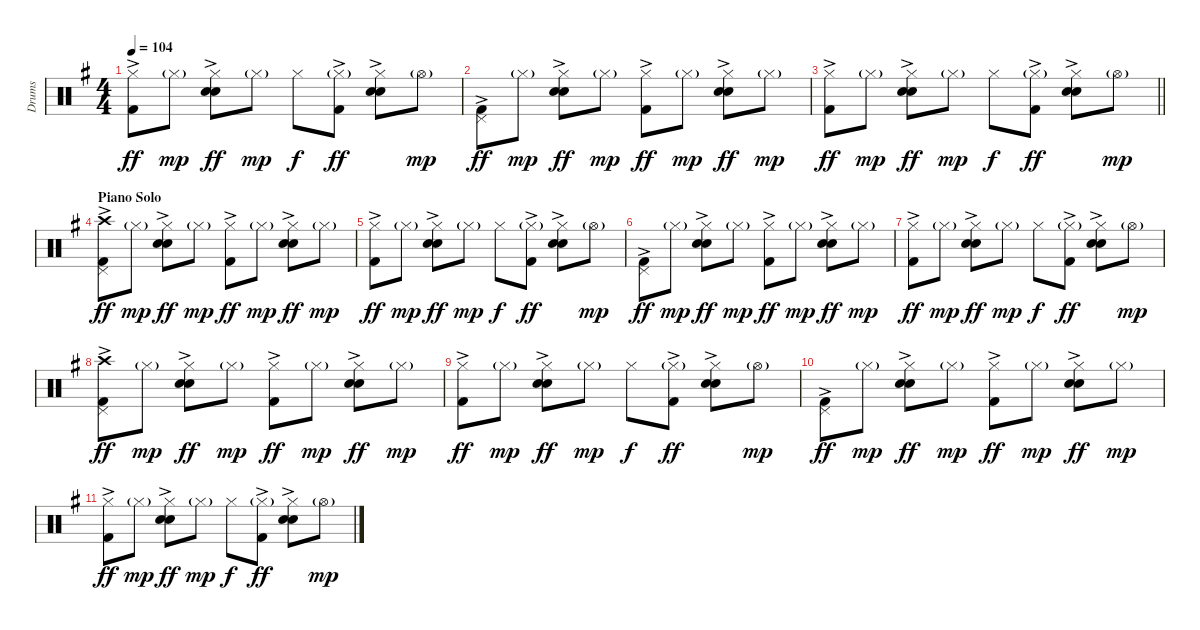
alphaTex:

\track ("Drums" "Drums") {instrument percussion}
\staff {score}
\articulation defaults
\ts (4 4)
\tempo 104
\clef neutral
\ks g
("Hi-Hat (closed)" "Kick (hit) 2"{ac}).8{dy ff} "Hi-Hat (closed)"{g}.8{dy mp} ("Hi-Hat (closed)" "Electric Snare (hit)"{ac} "Snare (hit) 2").8{dy ff} "Hi-Hat (closed)"{g}.8{dy mp} "Hi-Hat (closed)".8{dy f} ("Hi-Hat (closed)"{g} "Kick (hit) 2"{ac}).8{dy ff} ("Hi-Hat (closed)" "Electric Snare (hit)"{ac} "Snare (hit) 2").8 "Hi-Hat (open)"{g}.8{dy mp} |
("Pedal Hi-Hat (hit)" "Kick (hit) 2"{ac}).8{dy ff} "Hi-Hat (closed)"{g}.8{dy mp} ("Hi-Hat (closed)" "Electric Snare (hit)"{ac} "Snare (hit) 2").8{dy ff} "Hi-Hat (closed)"{g}.8{dy mp} ("Hi-Hat (closed)" "Kick (hit) 2"{ac}).8{dy ff} "Hi-Hat (closed)"{g}.8{dy mp} ("Hi-Hat (closed)" "Electric Snare (hit)"{ac} "Snare (hit) 2").8{dy ff} "Hi-Hat (closed)"{g}.8{dy mp} |
\barLineRight lightlight
("Hi-Hat (closed)" "Kick (hit) 2"{ac}).8{dy ff} "Hi-Hat (closed)"{g}.8{dy mp} ("Hi-Hat (closed)" "Electric Snare (hit)"{ac} "Snare (hit) 2").8{dy ff} "Hi-Hat (closed)"{g}.8{dy mp} "Hi-Hat (closed)".8{dy f} ("Hi-Hat (closed)"{g} "Kick (hit) 2"{ac}).8{dy ff} ("Hi-Hat (closed)" "Electric Snare (hit)"{ac} "Snare (hit) 2").8 "Hi-Hat (open)"{g}.8{dy mp} |
\section ("" "Piano Solo")
("Pedal Hi-Hat (hit)" "Crash high (hit)" "Kick (hit) 2"{ac}).8{dy ff} "Hi-Hat (closed)"{g}.8{dy mp} ("Hi-Hat (closed)" "Electric Snare (hit)"{ac} "Snare (hit) 2").8{dy ff} "Hi-Hat (closed)"{g}.8{dy mp} ("Hi-Hat (closed)" "Kick (hit) 2"{ac}).8{dy ff} "Hi-Hat (closed)"{g}.8{dy mp} ("Hi-Hat (closed)" "Electric Snare (hit)"{ac} "Snare (hit) 2").8{dy ff} "Hi-Hat (closed)"{g}.8{dy mp} |
("Hi-Hat (closed)" "Kick (hit) 2"{ac}).8{dy ff} "Hi-Hat (closed)"{g}.8{dy mp} ("Hi-Hat (closed)" "Electric Snare (hit)"{ac} "Snare (hit) 2").8{dy ff} "Hi-Hat (closed)"{g}.8{dy mp} "Hi-Hat (closed)".8{dy f} ("Hi-Hat (closed)"{g} "Kick (hit) 2"{ac}).8{dy ff} ("Hi-Hat (closed)" "Electric Snare (hit)"{ac} "Snare (hit) 2").8 "Hi-Hat (open)"{g}.8{dy mp} |
("Pedal Hi-Hat (hit)" "Kick (hit) 2"{ac}).8{dy ff} "Hi-Hat (closed)"{g}.8{dy mp} ("Hi-Hat (closed)" "Electric Snare (hit)"{ac} "Snare (hit) 2").8{dy ff} "Hi-Hat (closed)"{g}.8{dy mp} ("Hi-Hat (closed)" "Kick (hit) 2"{ac}).8{dy ff} "Hi-Hat (closed)"{g}.8{dy mp} ("Hi-Hat (closed)" "Electric Snare (hit)"{ac} "Snare (hit) 2").8{dy ff} "Hi-Hat (closed)"{g}.8{dy mp} |
("Hi-Hat (closed)" "Kick (hit) 2"{ac}).8{dy ff} "Hi-Hat (closed)"{g}.8{dy mp} ("Hi-Hat (closed)" "Electric Snare (hit)"{ac} "Snare (hit) 2").8{dy ff} "Hi-Hat (closed)"{g}.8{dy mp} "Hi-Hat (closed)".8{dy f} ("Hi-Hat (closed)"{g} "Kick (hit) 2"{ac}).8{dy ff} ("Hi-Hat (closed)" "Electric Snare (hit)"{ac} "Snare (hit) 2").8 "Hi-Hat (open)"{g}.8{dy mp} |
("Pedal Hi-Hat (hit)" "Crash high (hit)" "Kick (hit) 2"{ac}).8{dy ff} "Hi-Hat (closed)"{g}.8{dy mp} ("Hi-Hat (closed)" "Electric Snare (hit)"{ac} "Snare (hit) 2").8{dy ff} "Hi-Hat (closed)"{g}.8{dy mp} ("Hi-Hat (closed)" "Kick (hit) 2"{ac}).8{dy ff} "Hi-Hat (closed)"{g}.8{dy mp} ("Hi-Hat (closed)" "Electric Snare (hit)"{ac} "Snare (hit) 2").8{dy ff} "Hi-Hat (closed)"{g}.8{dy mp} |
("Hi-Hat (closed)" "Kick (hit) 2"{ac}).8{dy ff} "Hi-Hat (closed)"{g}.8{dy mp} ("Hi-Hat (closed)" "Electric Snare (hit)"{ac} "Snare (hit) 2").8{dy ff} "Hi-Hat (closed)"{g}.8{dy mp} "Hi-Hat (closed)".8{dy f} ("Hi-Hat (closed)"{g} "Kick (hit) 2"{ac}).8{dy ff} ("Hi-Hat (closed)" "Electric Snare (hit)"{ac} "Snare (hit) 2").8 "Hi-Hat (open)"{g}.8{dy mp} |
("Pedal Hi-Hat (hit)" "Kick (hit) 2"{ac}).8{dy ff} "Hi-Hat (closed)"{g}.8{dy mp} ("Hi-Hat (closed)" "Electric Snare (hit)"{ac} "Snare (hit) 2").8{dy ff} "Hi-Hat (closed)"{g}.8{dy mp} ("Hi-Hat (closed)" "Kick (hit) 2"{ac}).8{dy ff} "Hi-Hat (closed)"{g}.8{dy mp} ("Hi-Hat (closed)" "Electric Snare (hit)"{ac} "Snare (hit) 2").8{dy ff} "Hi-Hat (closed)"{g}.8{dy mp} |
("Hi-Hat (closed)" "Kick (hit) 2"{ac}).8{dy ff} "Hi-Hat (closed)"{g}.8{dy mp} ("Hi-Hat (closed)" "Electric Snare (hit)"{ac} "Snare (hit) 2").8{dy ff} "Hi-Hat (closed)"{g}.8{dy mp} "Hi-Hat (closed)".8{dy f} ("Hi-Hat (closed)"{g} "Kick (hit) 2"{ac}).8{dy ff} ("Hi-Hat (closed)" "Electric Snare (hit)"{ac} "Snare (hit) 2").8 "Hi-Hat (open)"{g}.8{dy mp}
